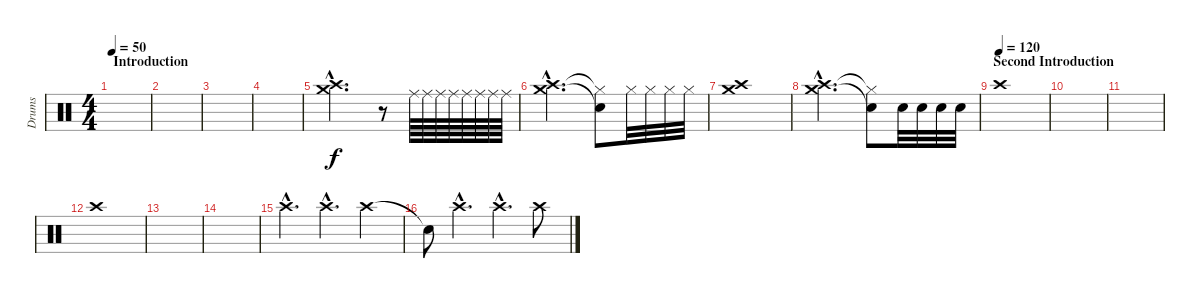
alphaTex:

\track ("Drums" "Drums") {instrument percussion}
\staff {score}
\articulation defaults
\ts (4 4)
\section ("" "Introduction")
\tempo 50
\clef neutral
\ks c
|
|
|
|
("Crash high (hit)"{hac} "Crash medium (hit)"{hac}).2{d} r.8 "Ride (middle)".64 "Ride (middle)".64 "Ride (middle)".64 "Ride (middle)".64 "Ride (middle)".64 "Ride (middle)".64 "Ride (middle)".64 "Ride (middle)".64 |
("Crash high (hit)"{hac} "Crash medium (hit)"{hac}).2{d} ("Hi-Hat (closed)"{t} "Snare (hit)"{t}).8 "Hi-Hat (closed)".32 "Hi-Hat (closed)".32 "Hi-Hat (closed)".32 "Hi-Hat (closed)".32 |
("Crash high (hit)" "Crash medium (hit)").1 |
("Crash high (hit)"{hac} "Crash medium (hit)"{hac}).2{d} ("Hi-Hat (closed)"{t} "Snare (hit)"{t}).8 "Electric Snare (hit)".32 "Electric Snare (hit)".32 "Electric Snare (hit)".32 "Electric Snare (hit)".32 |
\section ("" "Second Introduction")
\tempo (120)
"Crash high (hit)".1 |
|
|
"Crash high (hit)".1 |
|
|
"Crash high (hit)"{hac}.4{d} "Crash high (hit)"{hac}.4{d} "Crash high (hit)".4 |
"Snare (hit)"{t}.8 "Crash high (hit)"{hac}.4{d} "Crash high (hit)"{hac}.4{d} "Crash high (hit)".8
